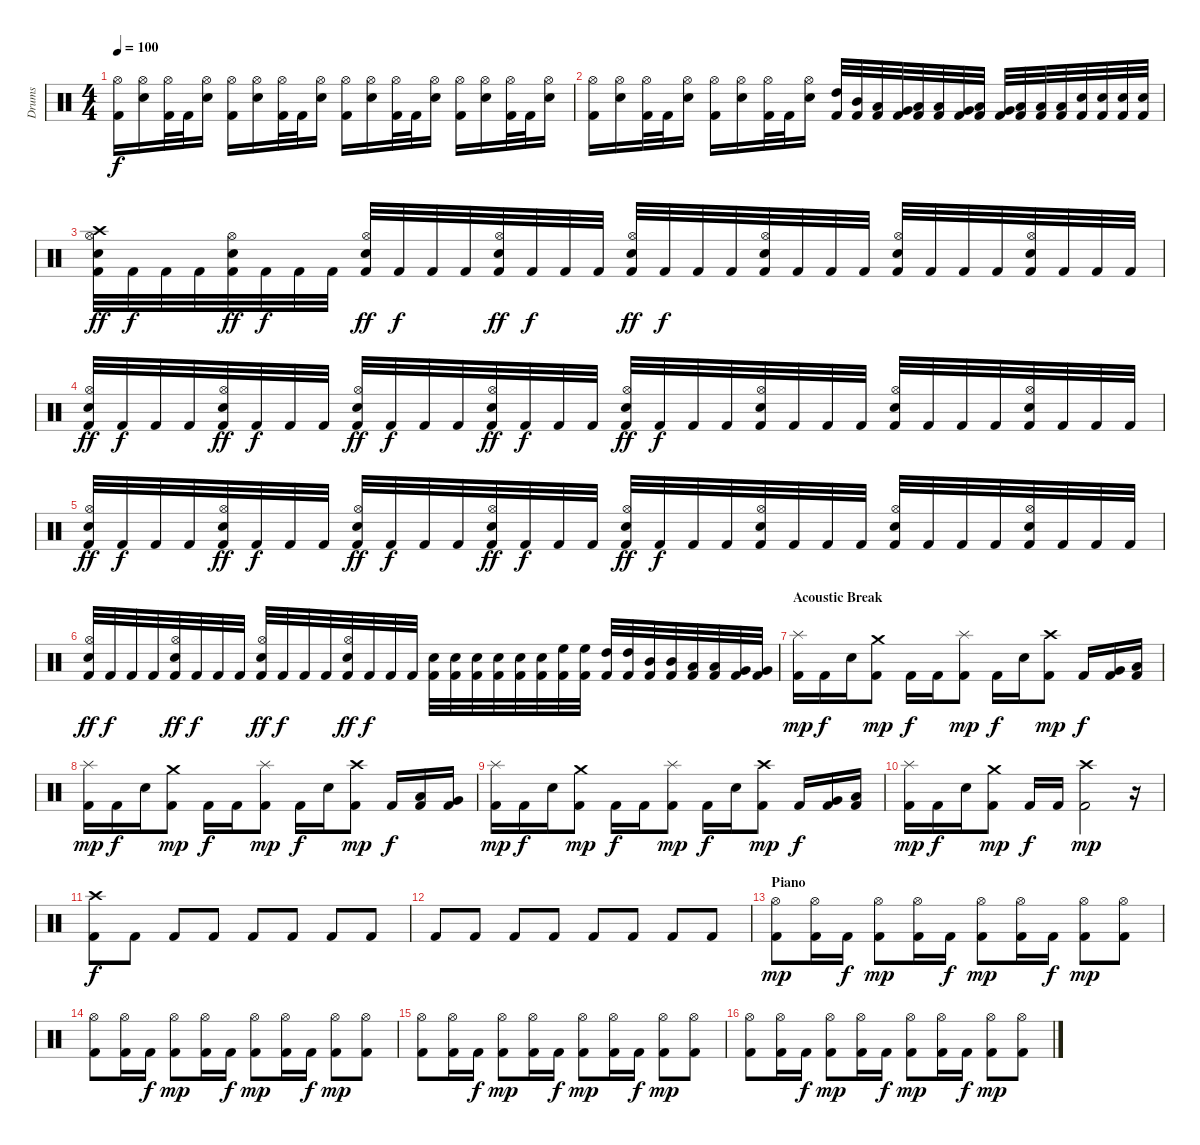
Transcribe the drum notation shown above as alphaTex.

\track ("Drums" "Drums") {instrument percussion}
\staff {score}
\articulation defaults
\ts (4 4)
\tempo 100
\clef neutral
\ks c
("Kick (hit) 2" "Hi-Hat (open)").16{dy f} ("Electric Snare (hit)" "Hi-Hat (open)").16 ("Kick (hit) 2" "Hi-Hat (open)").32 "Kick (hit) 2".32 ("Electric Snare (hit)" "Hi-Hat (open)").16 ("Kick (hit) 2" "Hi-Hat (open)").16 ("Electric Snare (hit)" "Hi-Hat (open)").16 ("Kick (hit) 2" "Hi-Hat (open)").32 "Kick (hit) 2".32 ("Electric Snare (hit)" "Hi-Hat (open)").16 ("Kick (hit) 2" "Hi-Hat (open)").16 ("Electric Snare (hit)" "Hi-Hat (open)").16 ("Kick (hit) 2" "Hi-Hat (open)").32 "Kick (hit) 2".32 ("Electric Snare (hit)" "Hi-Hat (open)").16 ("Kick (hit) 2" "Hi-Hat (open)").16 ("Electric Snare (hit)" "Hi-Hat (open)").16 ("Kick (hit) 2" "Hi-Hat (open)").32 "Kick (hit) 2".32 ("Electric Snare (hit)" "Hi-Hat (open)").16 |
("Kick (hit) 2" "Hi-Hat (open)").16 ("Electric Snare (hit)" "Hi-Hat (open)").16 ("Kick (hit) 2" "Hi-Hat (open)").32 "Kick (hit) 2".32 ("Electric Snare (hit)" "Hi-Hat (open)").16 ("Kick (hit) 2" "Hi-Hat (open)").16 ("Electric Snare (hit)" "Hi-Hat (open)").16 ("Kick (hit) 2" "Hi-Hat (open)").32 "Kick (hit) 2".32 ("Electric Snare (hit)" "Hi-Hat (open)").16 ("Kick (hit) 2" "High Tom (hit)").32 ("Kick (hit) 2" "Mid Tom (hit)").32 ("Kick (hit) 2" "Low Tom (hit)").32 ("Kick (hit) 2" "Very Low Tom (hit)").32 ("Kick (hit) 2" "Low Floor Tom (hit)").32 ("Kick (hit) 2" "Low Tom (hit)").32 ("Kick (hit) 2" "Very Low Tom (hit)").32 ("Kick (hit) 2" "Low Tom (hit)").32 ("Kick (hit) 2" "Very Low Tom (hit)").32 ("Kick (hit) 2" "Low Floor Tom (hit)").32 ("Kick (hit) 2" "Low Floor Tom (hit)").32 ("Kick (hit) 2" "Low Floor Tom (hit)").32 ("Kick (hit) 2" "Electric Snare (hit)").32 ("Kick (hit) 2" "Electric Snare (hit)").32 ("Kick (hit) 2" "Electric Snare (hit)").32 ("Kick (hit) 2" "Electric Snare (hit)").32 |
\section ("" "")
("Kick (hit) 2" "Electric Snare (hit)" "Hi-Hat (open)" "Crash high (hit)").32{dy ff} "Kick (hit) 2".32{dy f} "Kick (hit) 2".32 "Kick (hit) 2".32 ("Kick (hit) 2" "Electric Snare (hit)" "Hi-Hat (open)").32{dy ff} "Kick (hit) 2".32{dy f} "Kick (hit) 2".32 "Kick (hit) 2".32 ("Kick (hit) 2" "Electric Snare (hit)" "Hi-Hat (open)").32{dy ff} "Kick (hit) 2".32{dy f} "Kick (hit) 2".32 "Kick (hit) 2".32 ("Kick (hit) 2" "Electric Snare (hit)" "Hi-Hat (open)").32{dy ff} "Kick (hit) 2".32{dy f} "Kick (hit) 2".32 "Kick (hit) 2".32 ("Kick (hit) 2" "Electric Snare (hit)" "Hi-Hat (open)").32{dy ff} "Kick (hit) 2".32{dy f} "Kick (hit) 2".32 "Kick (hit) 2".32 ("Kick (hit) 2" "Electric Snare (hit)" "Hi-Hat (open)").32 "Kick (hit) 2".32 "Kick (hit) 2".32 "Kick (hit) 2".32 ("Kick (hit) 2" "Electric Snare (hit)" "Hi-Hat (open)").32 "Kick (hit) 2".32 "Kick (hit) 2".32 "Kick (hit) 2".32 ("Kick (hit) 2" "Electric Snare (hit)" "Hi-Hat (open)").32 "Kick (hit) 2".32 "Kick (hit) 2".32 "Kick (hit) 2".32 |
("Kick (hit) 2" "Electric Snare (hit)" "Hi-Hat (open)").32{dy ff} "Kick (hit) 2".32{dy f} "Kick (hit) 2".32 "Kick (hit) 2".32 ("Kick (hit) 2" "Electric Snare (hit)" "Hi-Hat (open)").32{dy ff} "Kick (hit) 2".32{dy f} "Kick (hit) 2".32 "Kick (hit) 2".32 ("Kick (hit) 2" "Electric Snare (hit)" "Hi-Hat (open)").32{dy ff} "Kick (hit) 2".32{dy f} "Kick (hit) 2".32 "Kick (hit) 2".32 ("Kick (hit) 2" "Electric Snare (hit)" "Hi-Hat (open)").32{dy ff} "Kick (hit) 2".32{dy f} "Kick (hit) 2".32 "Kick (hit) 2".32 ("Kick (hit) 2" "Electric Snare (hit)" "Hi-Hat (open)").32{dy ff} "Kick (hit) 2".32{dy f} "Kick (hit) 2".32 "Kick (hit) 2".32 ("Kick (hit) 2" "Electric Snare (hit)" "Hi-Hat (open)").32 "Kick (hit) 2".32 "Kick (hit) 2".32 "Kick (hit) 2".32 ("Kick (hit) 2" "Electric Snare (hit)" "Hi-Hat (open)").32 "Kick (hit) 2".32 "Kick (hit) 2".32 "Kick (hit) 2".32 ("Kick (hit) 2" "Electric Snare (hit)" "Hi-Hat (open)").32 "Kick (hit) 2".32 "Kick (hit) 2".32 "Kick (hit) 2".32 |
("Kick (hit) 2" "Electric Snare (hit)" "Hi-Hat (open)").32{dy ff} "Kick (hit) 2".32{dy f} "Kick (hit) 2".32 "Kick (hit) 2".32 ("Kick (hit) 2" "Electric Snare (hit)" "Hi-Hat (open)").32{dy ff} "Kick (hit) 2".32{dy f} "Kick (hit) 2".32 "Kick (hit) 2".32 ("Kick (hit) 2" "Electric Snare (hit)" "Hi-Hat (open)").32{dy ff} "Kick (hit) 2".32{dy f} "Kick (hit) 2".32 "Kick (hit) 2".32 ("Kick (hit) 2" "Electric Snare (hit)" "Hi-Hat (open)").32{dy ff} "Kick (hit) 2".32{dy f} "Kick (hit) 2".32 "Kick (hit) 2".32 ("Kick (hit) 2" "Electric Snare (hit)" "Hi-Hat (open)").32{dy ff} "Kick (hit) 2".32{dy f} "Kick (hit) 2".32 "Kick (hit) 2".32 ("Kick (hit) 2" "Electric Snare (hit)" "Hi-Hat (open)").32 "Kick (hit) 2".32 "Kick (hit) 2".32 "Kick (hit) 2".32 ("Kick (hit) 2" "Electric Snare (hit)" "Hi-Hat (open)").32 "Kick (hit) 2".32 "Kick (hit) 2".32 "Kick (hit) 2".32 ("Kick (hit) 2" "Electric Snare (hit)" "Hi-Hat (open)").32 "Kick (hit) 2".32 "Kick (hit) 2".32 "Kick (hit) 2".32 |
("Kick (hit) 2" "Electric Snare (hit)" "Hi-Hat (open)").32{dy ff} "Kick (hit) 2".32{dy f} "Kick (hit) 2".32 "Kick (hit) 2".32 ("Kick (hit) 2" "Electric Snare (hit)" "Hi-Hat (open)").32{dy ff} "Kick (hit) 2".32{dy f} "Kick (hit) 2".32 "Kick (hit) 2".32 ("Kick (hit) 2" "Electric Snare (hit)" "Hi-Hat (open)").32{dy ff} "Kick (hit) 2".32{dy f} "Kick (hit) 2".32 "Kick (hit) 2".32 ("Kick (hit) 2" "Electric Snare (hit)" "Hi-Hat (open)").32{dy ff} "Kick (hit) 2".32{dy f} "Kick (hit) 2".32 "Kick (hit) 2".32 ("Kick (hit) 2" "Electric Snare (hit)").32 ("Kick (hit) 2" "Electric Snare (hit)").32 ("Kick (hit) 2" "Electric Snare (hit)").32 ("Kick (hit) 2" "Electric Snare (hit)").32 ("Kick (hit) 2" "Electric Snare (hit)").32 ("Kick (hit) 2" "Electric Snare (hit)").32 ("Kick (hit) 2" "High Floor Tom (hit)").32 ("Kick (hit) 2" "High Floor Tom (hit)").32 ("Kick (hit) 2" "High Tom (hit)").32 ("Kick (hit) 2" "High Tom (hit)").32 ("Kick (hit) 2" "Mid Tom (hit)").32 ("Kick (hit) 2" "Mid Tom (hit)").32 ("Kick (hit) 2" "Low Tom (hit)").32 ("Kick (hit) 2" "Low Tom (hit)").32 ("Kick (hit) 2" "Very Low Tom (hit)").32 ("Kick (hit) 2" "Very Low Tom (hit)").32 |
\section ("" "Acoustic Break")
("Kick (hit) 2" "Splash (hit)").16{dy mp} "Kick (hit) 2".16{dy f} "Electric Snare (hit)".16 ("Kick (hit) 2" "Crash medium (hit)").8{dy mp} "Kick (hit) 2".16{dy f} "Kick (hit) 2".16 ("Kick (hit) 2" "Splash (hit)").8{dy mp} "Kick (hit) 2".16{dy f} "Electric Snare (hit)".16 ("Kick (hit) 2" "Crash high (hit)").8{dy mp} "Kick (hit) 2".16{dy f} ("Kick (hit) 2" "Very Low Tom (hit)").16 ("Kick (hit) 2" "Low Floor Tom (hit)").16 |
("Kick (hit) 2" "Splash (hit)").16{dy mp} "Kick (hit) 2".16{dy f} "Electric Snare (hit)".16 ("Kick (hit) 2" "Crash medium (hit)").8{dy mp} "Kick (hit) 2".16{dy f} "Kick (hit) 2".16 ("Kick (hit) 2" "Splash (hit)").8{dy mp} "Kick (hit) 2".16{dy f} "Electric Snare (hit)".16 ("Kick (hit) 2" "Crash high (hit)").8{dy mp} "Kick (hit) 2".16{dy f} ("Kick (hit) 2" "Low Tom (hit)").16 ("Kick (hit) 2" "Very Low Tom (hit)").16 |
("Kick (hit) 2" "Splash (hit)").16{dy mp} "Kick (hit) 2".16{dy f} "Electric Snare (hit)".16 ("Kick (hit) 2" "Crash medium (hit)").8{dy mp} "Kick (hit) 2".16{dy f} "Kick (hit) 2".16 ("Kick (hit) 2" "Splash (hit)").8{dy mp} "Kick (hit) 2".16{dy f} "Electric Snare (hit)".16 ("Kick (hit) 2" "Crash high (hit)").8{dy mp} "Kick (hit) 2".16{dy f} ("Kick (hit) 2" "Very Low Tom (hit)").16 ("Kick (hit) 2" "Low Floor Tom (hit)").16 |
("Kick (hit) 2" "Splash (hit)").16{dy mp} "Kick (hit) 2".16{dy f} "Electric Snare (hit)".16 ("Kick (hit) 2" "Crash medium (hit)").8{dy mp} "Kick (hit) 2".16{dy f} "Kick (hit) 2".16 ("Kick (hit) 2" "Crash high (hit)").2{dy mp} r.16 |
("Kick (hit) 2" "Crash high (hit)").8{dy f} "Kick (hit) 2".8 "Kick (hit) 2".8 "Kick (hit) 2".8 "Kick (hit) 2".8 "Kick (hit) 2".8 "Kick (hit) 2".8 "Kick (hit) 2".8 |
"Kick (hit) 2".8 "Kick (hit) 2".8 "Kick (hit) 2".8 "Kick (hit) 2".8 "Kick (hit) 2".8 "Kick (hit) 2".8 "Kick (hit) 2".8 "Kick (hit) 2".8 |
\section ("" "Piano")
("Kick (hit) 2" "Hi-Hat (open)").8{dy mp} ("Kick (hit) 2" "Hi-Hat (open)").16 "Kick (hit) 2".16{dy f} ("Kick (hit) 2" "Hi-Hat (open)").8{dy mp} ("Kick (hit) 2" "Hi-Hat (open)").16 "Kick (hit) 2".16{dy f} ("Kick (hit) 2" "Hi-Hat (open)").8{dy mp} ("Kick (hit) 2" "Hi-Hat (open)").16 "Kick (hit) 2".16{dy f} ("Kick (hit) 2" "Hi-Hat (open)").8{dy mp} ("Kick (hit) 2" "Hi-Hat (open)").8 |
("Kick (hit) 2" "Hi-Hat (open)").8 ("Kick (hit) 2" "Hi-Hat (open)").16 "Kick (hit) 2".16{dy f} ("Kick (hit) 2" "Hi-Hat (open)").8{dy mp} ("Kick (hit) 2" "Hi-Hat (open)").16 "Kick (hit) 2".16{dy f} ("Kick (hit) 2" "Hi-Hat (open)").8{dy mp} ("Kick (hit) 2" "Hi-Hat (open)").16 "Kick (hit) 2".16{dy f} ("Kick (hit) 2" "Hi-Hat (open)").8{dy mp} ("Kick (hit) 2" "Hi-Hat (open)").8 |
("Kick (hit) 2" "Hi-Hat (open)").8 ("Kick (hit) 2" "Hi-Hat (open)").16 "Kick (hit) 2".16{dy f} ("Kick (hit) 2" "Hi-Hat (open)").8{dy mp} ("Kick (hit) 2" "Hi-Hat (open)").16 "Kick (hit) 2".16{dy f} ("Kick (hit) 2" "Hi-Hat (open)").8{dy mp} ("Kick (hit) 2" "Hi-Hat (open)").16 "Kick (hit) 2".16{dy f} ("Kick (hit) 2" "Hi-Hat (open)").8{dy mp} ("Kick (hit) 2" "Hi-Hat (open)").8 |
("Kick (hit) 2" "Hi-Hat (open)").8 ("Kick (hit) 2" "Hi-Hat (open)").16 "Kick (hit) 2".16{dy f} ("Kick (hit) 2" "Hi-Hat (open)").8{dy mp} ("Kick (hit) 2" "Hi-Hat (open)").16 "Kick (hit) 2".16{dy f} ("Kick (hit) 2" "Hi-Hat (open)").8{dy mp} ("Kick (hit) 2" "Hi-Hat (open)").16 "Kick (hit) 2".16{dy f} ("Kick (hit) 2" "Hi-Hat (open)").8{dy mp} ("Kick (hit) 2" "Hi-Hat (open)").8
